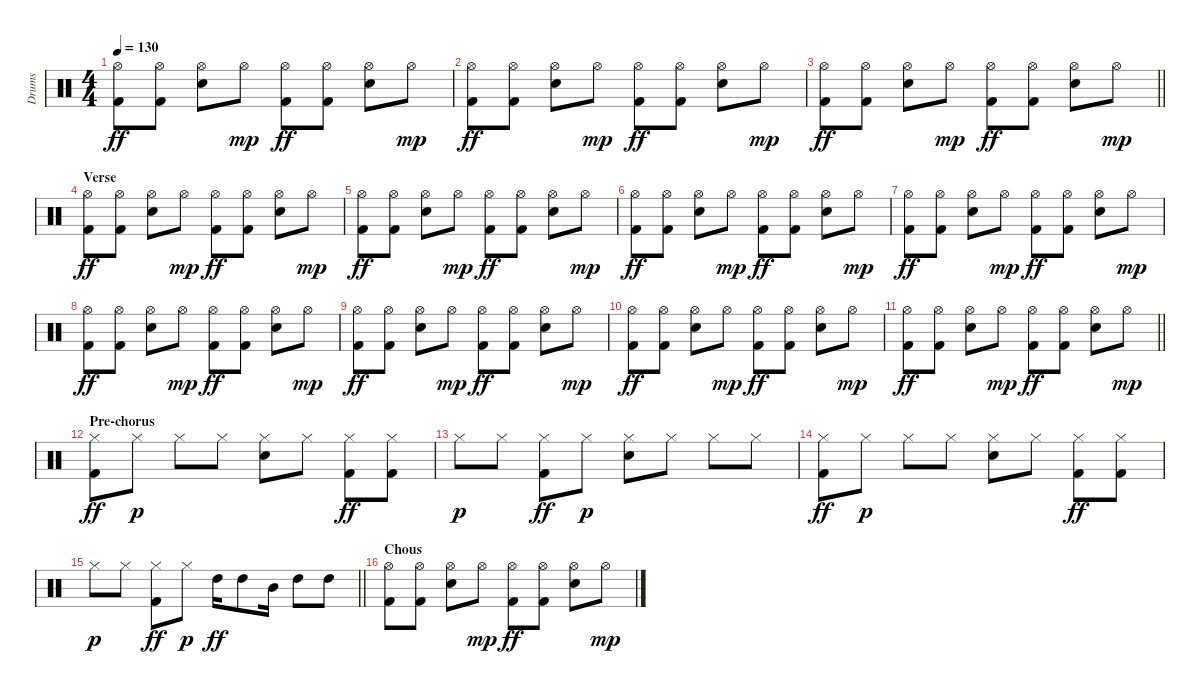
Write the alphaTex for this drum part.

\track ("Drums" "Drums") {instrument percussion}
\staff
\articulation defaults
\ts (4 4)
\tempo 130
\clef neutral
\ks c
("Hi-Hat (open)" "Kick (hit) 2").8{dy ff} ("Hi-Hat (open)" "Kick (hit) 2").8 ("Hi-Hat (open)" "Snare (hit) 2").8 "Hi-Hat (open)".8{dy mp} ("Hi-Hat (open)" "Kick (hit) 2").8{dy ff} ("Hi-Hat (open)" "Kick (hit) 2").8 ("Hi-Hat (open)" "Snare (hit) 2").8 "Hi-Hat (open)".8{dy mp} |
("Hi-Hat (open)" "Kick (hit) 2").8{dy ff} ("Hi-Hat (open)" "Kick (hit) 2").8 ("Hi-Hat (open)" "Snare (hit) 2").8 "Hi-Hat (open)".8{dy mp} ("Hi-Hat (open)" "Kick (hit) 2").8{dy ff} ("Hi-Hat (open)" "Kick (hit) 2").8 ("Hi-Hat (open)" "Snare (hit) 2").8 "Hi-Hat (open)".8{dy mp} |
\barLineRight lightlight
("Hi-Hat (open)" "Kick (hit) 2").8{dy ff} ("Hi-Hat (open)" "Kick (hit) 2").8 ("Hi-Hat (open)" "Snare (hit) 2").8 "Hi-Hat (open)".8{dy mp} ("Hi-Hat (open)" "Kick (hit) 2").8{dy ff} ("Hi-Hat (open)" "Kick (hit) 2").8 ("Hi-Hat (open)" "Snare (hit) 2").8 "Hi-Hat (open)".8{dy mp} |
\section ("" "Verse")
("Hi-Hat (open)" "Kick (hit) 2").8{dy ff} ("Hi-Hat (open)" "Kick (hit) 2").8 ("Hi-Hat (open)" "Snare (hit) 2").8 "Hi-Hat (open)".8{dy mp} ("Hi-Hat (open)" "Kick (hit) 2").8{dy ff} ("Hi-Hat (open)" "Kick (hit) 2").8 ("Hi-Hat (open)" "Snare (hit) 2").8 "Hi-Hat (open)".8{dy mp} |
("Hi-Hat (open)" "Kick (hit) 2").8{dy ff} ("Hi-Hat (open)" "Kick (hit) 2").8 ("Hi-Hat (open)" "Snare (hit) 2").8 "Hi-Hat (open)".8{dy mp} ("Hi-Hat (open)" "Kick (hit) 2").8{dy ff} ("Hi-Hat (open)" "Kick (hit) 2").8 ("Hi-Hat (open)" "Snare (hit) 2").8 "Hi-Hat (open)".8{dy mp} |
("Hi-Hat (open)" "Kick (hit) 2").8{dy ff} ("Hi-Hat (open)" "Kick (hit) 2").8 ("Hi-Hat (open)" "Snare (hit) 2").8 "Hi-Hat (open)".8{dy mp} ("Hi-Hat (open)" "Kick (hit) 2").8{dy ff} ("Hi-Hat (open)" "Kick (hit) 2").8 ("Hi-Hat (open)" "Snare (hit) 2").8 "Hi-Hat (open)".8{dy mp} |
("Hi-Hat (open)" "Kick (hit) 2").8{dy ff} ("Hi-Hat (open)" "Kick (hit) 2").8 ("Hi-Hat (open)" "Snare (hit) 2").8 "Hi-Hat (open)".8{dy mp} ("Hi-Hat (open)" "Kick (hit) 2").8{dy ff} ("Hi-Hat (open)" "Kick (hit) 2").8 ("Hi-Hat (open)" "Snare (hit) 2").8 "Hi-Hat (open)".8{dy mp} |
("Hi-Hat (open)" "Kick (hit) 2").8{dy ff} ("Hi-Hat (open)" "Kick (hit) 2").8 ("Hi-Hat (open)" "Snare (hit) 2").8 "Hi-Hat (open)".8{dy mp} ("Hi-Hat (open)" "Kick (hit) 2").8{dy ff} ("Hi-Hat (open)" "Kick (hit) 2").8 ("Hi-Hat (open)" "Snare (hit) 2").8 "Hi-Hat (open)".8{dy mp} |
("Hi-Hat (open)" "Kick (hit) 2").8{dy ff} ("Hi-Hat (open)" "Kick (hit) 2").8 ("Hi-Hat (open)" "Snare (hit) 2").8 "Hi-Hat (open)".8{dy mp} ("Hi-Hat (open)" "Kick (hit) 2").8{dy ff} ("Hi-Hat (open)" "Kick (hit) 2").8 ("Hi-Hat (open)" "Snare (hit) 2").8 "Hi-Hat (open)".8{dy mp} |
("Hi-Hat (open)" "Kick (hit) 2").8{dy ff} ("Hi-Hat (open)" "Kick (hit) 2").8 ("Hi-Hat (open)" "Snare (hit) 2").8 "Hi-Hat (open)".8{dy mp} ("Hi-Hat (open)" "Kick (hit) 2").8{dy ff} ("Hi-Hat (open)" "Kick (hit) 2").8 ("Hi-Hat (open)" "Snare (hit) 2").8 "Hi-Hat (open)".8{dy mp} |
\barLineRight lightlight
("Hi-Hat (open)" "Kick (hit) 2").8{dy ff} ("Hi-Hat (open)" "Kick (hit) 2").8 ("Hi-Hat (open)" "Snare (hit) 2").8 "Hi-Hat (open)".8{dy mp} ("Hi-Hat (open)" "Kick (hit) 2").8{dy ff} ("Hi-Hat (open)" "Kick (hit) 2").8 ("Hi-Hat (open)" "Snare (hit) 2").8 "Hi-Hat (open)".8{dy mp} |
\section ("" "Pre-chorus")
("Hi-Hat (closed)" "Kick (hit) 2").8{dy ff} "Hi-Hat (closed)".8{dy p} "Hi-Hat (closed)".8 "Hi-Hat (closed)".8 ("Hi-Hat (closed)" "Snare (hit) 2").8 "Hi-Hat (closed)".8 ("Hi-Hat (closed)" "Kick (hit) 2").8{dy ff} ("Hi-Hat (closed)" "Kick (hit) 2").8 |
"Hi-Hat (closed)".8{dy p} "Hi-Hat (closed)".8 ("Hi-Hat (closed)" "Kick (hit) 2").8{dy ff} "Hi-Hat (closed)".8{dy p} ("Hi-Hat (closed)" "Snare (hit) 2").8 "Hi-Hat (closed)".8 "Hi-Hat (closed)".8 "Hi-Hat (closed)".8 |
("Hi-Hat (closed)" "Kick (hit) 2").8{dy ff} "Hi-Hat (closed)".8{dy p} "Hi-Hat (closed)".8 "Hi-Hat (closed)".8 ("Hi-Hat (closed)" "Snare (hit) 2").8 "Hi-Hat (closed)".8 ("Hi-Hat (closed)" "Kick (hit) 2").8{dy ff} ("Hi-Hat (closed)" "Kick (hit) 2").8 |
\barLineRight lightlight "Hi-Hat (closed)".8{dy p} "Hi-Hat (closed)".8
("Hi-Hat (closed)" "Kick (hit) 2").8{dy ff} "Hi-Hat (closed)".8{dy p} "High Tom (hit)".16{dy ff} "High Tom (hit)".8 "Mid Tom (hit)".16 "High Tom (hit)".8 "High Tom (hit)".8 |
\section ("" "Chous")
("Hi-Hat (open)" "Kick (hit) 2").8 ("Hi-Hat (open)" "Kick (hit) 2").8 ("Hi-Hat (open)" "Snare (hit) 2").8 "Hi-Hat (open)".8{dy mp} ("Hi-Hat (open)" "Kick (hit) 2").8{dy ff} ("Hi-Hat (open)" "Kick (hit) 2").8 ("Hi-Hat (open)" "Snare (hit) 2").8 "Hi-Hat (open)".8{dy mp}
